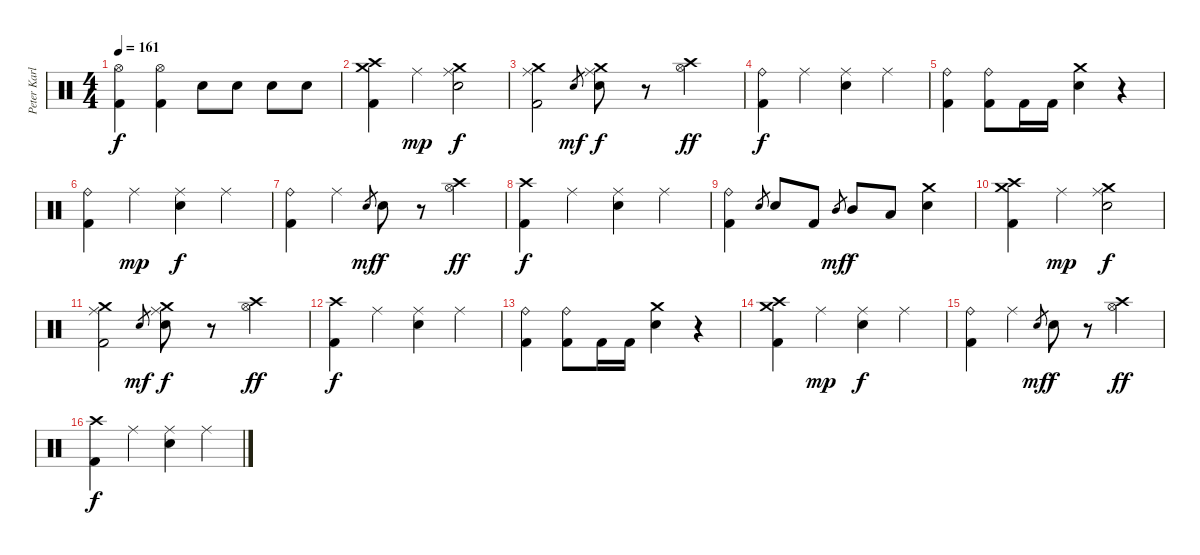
\track ("Peter Karlsson" "Peter Karl") {instrument percussion}
\staff {score}
\articulation defaults
\ts (4 4)
\tempo 161
\clef neutral
\ks c
("Hi-Hat (open)" "Kick (hit) 2").4{dy f} ("Hi-Hat (open)" "Kick (hit) 2").4 "Snare (hit) 2".8 "Snare (hit) 2".8 "Snare (hit) 2".8 "Snare (hit) 2".8 |
("Crash high (hit)" "Crash medium (hit)" "Kick (hit) 2").4 "Ride (middle)".4{dy mp} ("Crash medium (hit)" "Ride (middle)" "Snare (hit) 2").2{dy f} |
("Crash medium (hit)" "Ride (middle)" "Kick (hit) 2").2 "Snare (hit) 2".8{gr dy mf} ("Crash medium (hit)" "Ride (middle)" "Snare (hit) 2").8{dy f} r.8 ("Crash high (hit)" "Hi-Hat (open)").4{dy ff} |
("Ride (bell)" "Kick (hit) 2").4{dy f} "Ride (middle)".4 ("Ride (middle)" "Snare (hit) 2").4 "Ride (middle)".4 |
("Ride (bell)" "Kick (hit) 2").4 ("Ride (bell)" "Kick (hit) 2").8 "Kick (hit) 2".16 "Kick (hit) 2".16 ("Crash medium (hit)" "Snare (hit) 2").4 r.4 |
("Ride (bell)" "Kick (hit) 2").4 "Ride (middle)".4{dy mp} ("Ride (middle)" "Snare (hit) 2").4{dy f} "Ride (middle)".4 |
("Ride (bell)" "Kick (hit) 2").4 "Ride (middle)".4 "Snare (hit) 2".8{gr dy mf} "Snare (hit) 2".8{dy f} r.8 ("Crash high (hit)" "Hi-Hat (open)").4{dy ff} |
("Crash high (hit)" "Kick (hit) 2").4{dy f} "Ride (middle)".4 ("Ride (middle)" "Snare (hit) 2").4 "Ride (middle)".4 |
("Ride (bell)" "Kick (hit) 2").4 "Snare (hit) 2".8{gr} "Snare (hit) 2".8 "Kick (hit) 2".8 "Mid Tom (hit)".8{gr dy mf} "Mid Tom (hit)".8{dy f} "Low Tom (hit)".8 ("Crash medium (hit)" "Snare (hit) 2").4 |
("Crash high (hit)" "Crash medium (hit)" "Kick (hit) 2").4 "Ride (middle)".4{dy mp} ("Crash medium (hit)" "Ride (middle)" "Snare (hit) 2").2{dy f} |
("Crash medium (hit)" "Ride (middle)" "Kick (hit) 2").2 "Snare (hit) 2".8{gr dy mf} ("Crash medium (hit)" "Ride (middle)" "Snare (hit) 2").8{dy f} r.8 ("Crash high (hit)" "Hi-Hat (open)").4{dy ff} |
("Crash high (hit)" "Kick (hit) 2").4{dy f} "Ride (middle)".4 ("Ride (middle)" "Snare (hit) 2").4 "Ride (middle)".4 |
("Ride (bell)" "Kick (hit) 2").4 ("Ride (bell)" "Kick (hit) 2").8 "Kick (hit) 2".16 "Kick (hit) 2".16 ("Crash medium (hit)" "Snare (hit) 2").4 r.4 |
("Crash high (hit)" "Crash medium (hit)" "Kick (hit) 2").4 "Ride (middle)".4{dy mp} ("Ride (middle)" "Snare (hit) 2").4{dy f} "Ride (middle)".4 |
("Ride (bell)" "Kick (hit) 2").4 "Ride (middle)".4 "Snare (hit) 2".8{gr dy mf} "Snare (hit) 2".8{dy f} r.8 ("Crash high (hit)" "Hi-Hat (open)").4{dy ff} |
("Crash high (hit)" "Kick (hit) 2").4{dy f} "Ride (middle)".4 ("Ride (middle)" "Snare (hit) 2").4 "Ride (middle)".4
